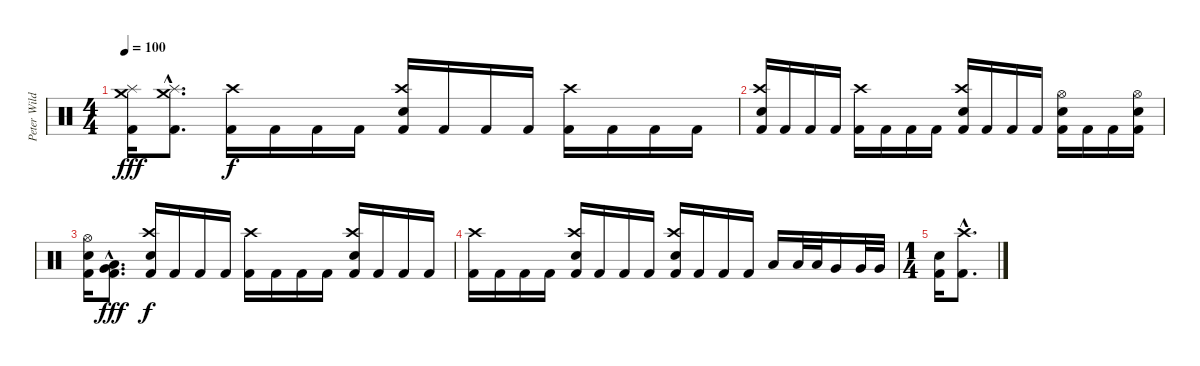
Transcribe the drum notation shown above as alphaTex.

\track ("Peter Wildoer" "Peter Wild") {instrument percussion}
\staff {score}
\articulation defaults
\ts (4 4)
\tempo 100
\clef neutral
\ks c
("Splash (hit)" "Crash medium (hit)" "Kick (hit) 2").16{dy fff} ("Splash (hit)"{hac} "Crash medium (hit)"{hac} "Kick (hit) 2"{hac}).8{d} ("Crash high (hit)" "Kick (hit) 2").16{dy f} "Kick (hit) 2".16 "Kick (hit) 2".16 "Kick (hit) 2".16 ("Crash high (hit)" "Electric Snare (hit)" "Kick (hit) 2").16 "Kick (hit) 2".16 "Kick (hit) 2".16 "Kick (hit) 2".16 ("Crash high (hit)" "Kick (hit) 2").16 "Kick (hit) 2".16 "Kick (hit) 2".16 "Kick (hit) 2".16 |
("Crash high (hit)" "Electric Snare (hit)" "Kick (hit) 2").16 "Kick (hit) 2".16 "Kick (hit) 2".16 "Kick (hit) 2".16 ("Crash high (hit)" "Kick (hit) 2").16 "Kick (hit) 2".16 "Kick (hit) 2".16 "Kick (hit) 2".16 ("Crash high (hit)" "Electric Snare (hit)" "Kick (hit) 2").16 "Kick (hit) 2".16 "Kick (hit) 2".16 "Kick (hit) 2".16 ("Hi-Hat (open)" "Electric Snare (hit)" "Kick (hit) 2").16 "Kick (hit) 2".16 "Kick (hit) 2".16 ("Hi-Hat (open)" "Electric Snare (hit)" "Kick (hit) 2").16 |
("Hi-Hat (open)" "Electric Snare (hit)" "Kick (hit) 2").16 ("Very Low Tom (hit)"{hac} "Low Floor Tom (hit)"{hac} "Kick (hit) 2"{hac}).8{d dy fff} ("Crash high (hit)" "Electric Snare (hit)" "Kick (hit) 2").16{dy f} "Kick (hit) 2".16 "Kick (hit) 2".16 "Kick (hit) 2".16 ("Crash high (hit)" "Kick (hit) 2").16 "Kick (hit) 2".16 "Kick (hit) 2".16 "Kick (hit) 2".16 ("Crash high (hit)" "Electric Snare (hit)" "Kick (hit) 2").16 "Kick (hit) 2".16 "Kick (hit) 2".16 "Kick (hit) 2".16 |
("Crash high (hit)" "Kick (hit) 2").16 "Kick (hit) 2".16 "Kick (hit) 2".16 "Kick (hit) 2".16 ("Crash high (hit)" "Electric Snare (hit)" "Kick (hit) 2").16 "Kick (hit) 2".16 "Kick (hit) 2".16 "Kick (hit) 2".16 ("Crash high (hit)" "Electric Snare (hit)" "Kick (hit) 2").16 "Kick (hit) 2".16 "Kick (hit) 2".16 "Kick (hit) 2".16 "Low Tom (hit)".16 "Low Tom (hit)".32 "Low Tom (hit)".32 "Very Low Tom (hit)".16 "Very Low Tom (hit)".32 "Very Low Tom (hit)".32 |
\ts (1 4)
("Electric Snare (hit)" "Kick (hit) 2").16 ("Crash high (hit)"{hac} "Kick (hit) 2"{hac}).8{d}
